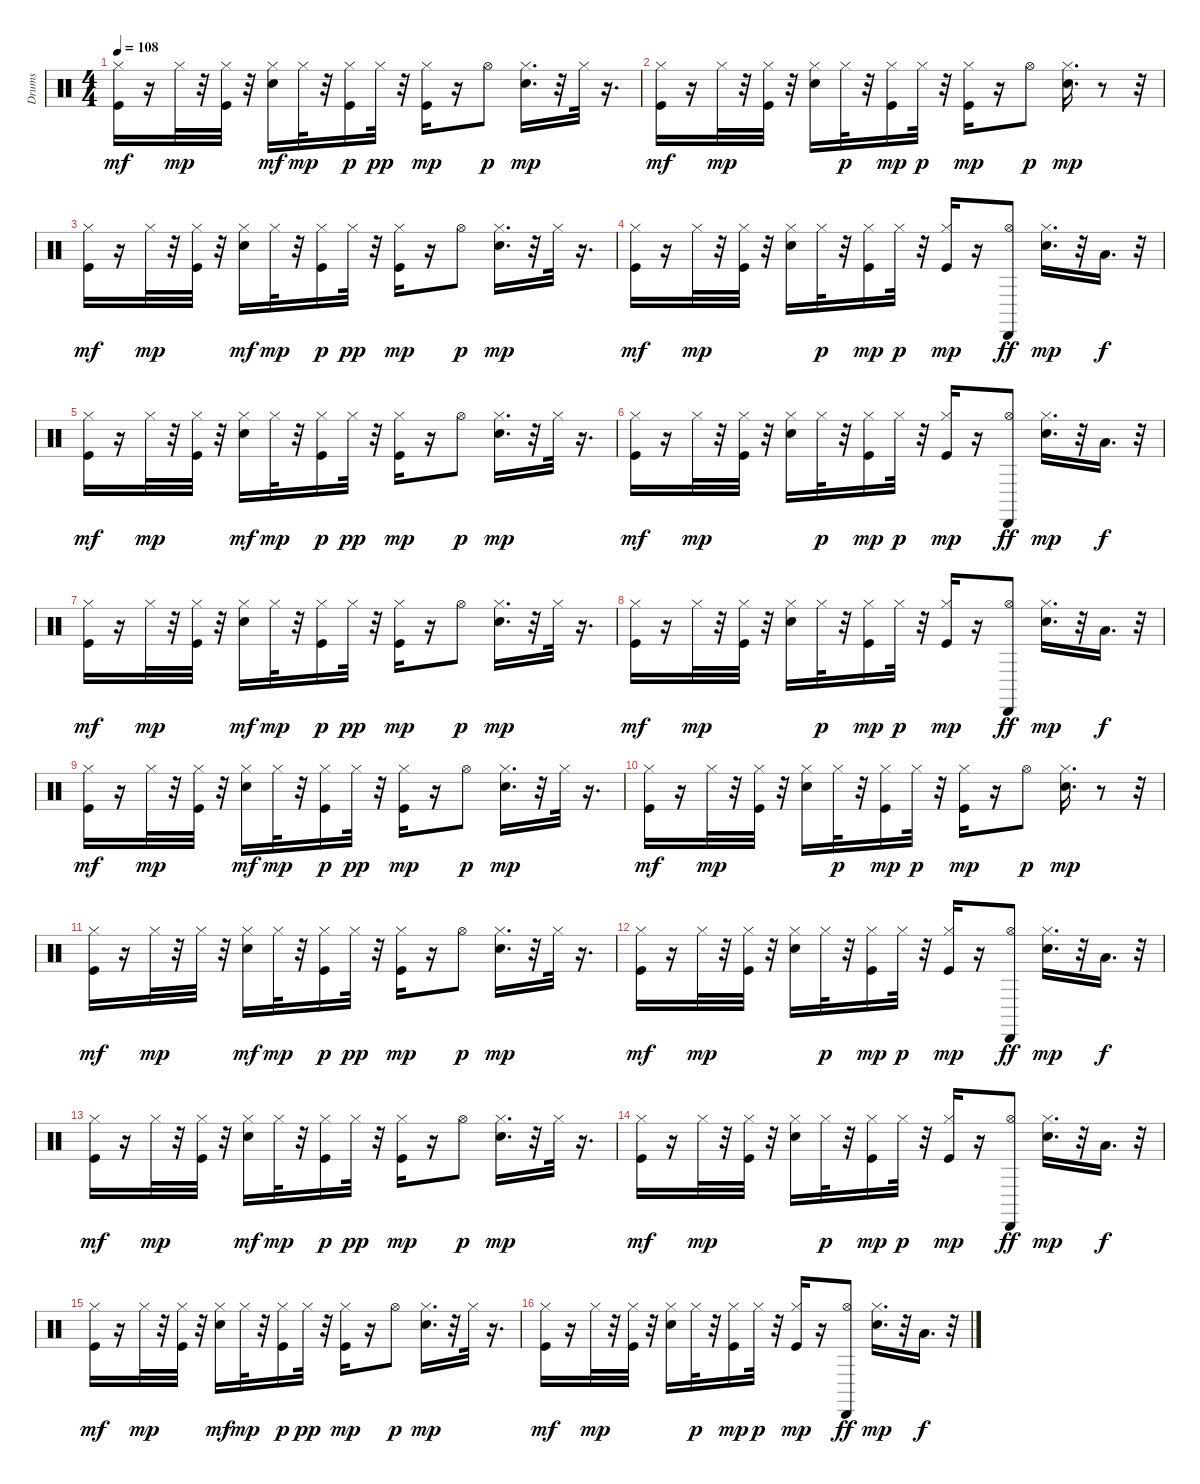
\track ("Drums" "Drums") {instrument percussion}
\staff {score}
\articulation defaults
\ts (4 4)
\tempo 108
\clef neutral
\ks c
("Hi-Hat (closed)" "Kick (hit)").16{dy mf} r.16 "Hi-Hat (closed)".32{dy mp} r.32 ("Hi-Hat (closed)" "Kick (hit)").32 r.32 ("Hi-Hat (closed)" "Snare (hit) 2").16{dy mf} "Hi-Hat (closed)".32{dy mp} r.32 ("Hi-Hat (closed)" "Kick (hit)").16{dy p} "Hi-Hat (closed)".32{dy pp} r.32 ("Hi-Hat (closed)" "Kick (hit)").16{dy mp} r.16 "Hi-Hat (open)".8{dy p} ("Hi-Hat (closed)" "Snare (hit) 2").16{d dy mp} r.32 "Hi-Hat (closed)".32 r.16{d} |
("Hi-Hat (closed)" "Kick (hit)").16{dy mf} r.16 "Hi-Hat (closed)".32{dy mp} r.32 ("Hi-Hat (closed)" "Kick (hit)").32 r.32 ("Hi-Hat (closed)" "Snare (hit) 2").16 "Hi-Hat (closed)".32{dy p} r.32 ("Hi-Hat (closed)" "Kick (hit)").16{dy mp} "Hi-Hat (closed)".32{dy p} r.32 ("Hi-Hat (closed)" "Kick (hit)").16{dy mp} r.16 "Hi-Hat (open)".8{dy p} ("Hi-Hat (closed)" "Snare (hit) 2").16{d dy mp} r.8 r.32 |
("Hi-Hat (closed)" "Kick (hit)").16{dy mf} r.16 "Hi-Hat (closed)".32{dy mp} r.32 ("Hi-Hat (closed)" "Kick (hit)").32 r.32 ("Hi-Hat (closed)" "Snare (hit) 2").16{dy mf} "Hi-Hat (closed)".32{dy mp} r.32 ("Hi-Hat (closed)" "Kick (hit)").16{dy p} "Hi-Hat (closed)".32{dy pp} r.32 ("Hi-Hat (closed)" "Kick (hit)").16{dy mp} r.16 "Hi-Hat (open)".8{dy p} ("Hi-Hat (closed)" "Snare (hit) 2").16{d dy mp} r.32 "Hi-Hat (closed)".32 r.16{d} |
("Hi-Hat (closed)" "Kick (hit)").16{dy mf} r.16 "Hi-Hat (closed)".32{dy mp} r.32 ("Hi-Hat (closed)" "Kick (hit)").32 r.32 ("Hi-Hat (closed)" "Snare (hit) 2").16 "Hi-Hat (closed)".32{dy p} r.32 ("Hi-Hat (closed)" "Kick (hit)").16{dy mp} "Hi-Hat (closed)".32{dy p} r.32 ("Hi-Hat (closed)" "Kick (hit)").16{dy mp} r.16 ("Hi-Hat (open)" "Cabasa (hit)").8{dy ff} ("Hi-Hat (closed)" "Snare (hit) 2").16{d dy mp} r.32 "Low Floor Tom (hit)".16{d dy f} r.32 |
("Hi-Hat (closed)" "Kick (hit)").16{dy mf} r.16 "Hi-Hat (closed)".32{dy mp} r.32 ("Hi-Hat (closed)" "Kick (hit)").32 r.32 ("Hi-Hat (closed)" "Snare (hit) 2").16{dy mf} "Hi-Hat (closed)".32{dy mp} r.32 ("Hi-Hat (closed)" "Kick (hit)").16{dy p} "Hi-Hat (closed)".32{dy pp} r.32 ("Hi-Hat (closed)" "Kick (hit)").16{dy mp} r.16 "Hi-Hat (open)".8{dy p} ("Hi-Hat (closed)" "Snare (hit) 2").16{d dy mp} r.32 "Hi-Hat (closed)".32 r.16{d} |
("Hi-Hat (closed)" "Kick (hit)").16{dy mf} r.16 "Hi-Hat (closed)".32{dy mp} r.32 ("Hi-Hat (closed)" "Kick (hit)").32 r.32 ("Hi-Hat (closed)" "Snare (hit) 2").16 "Hi-Hat (closed)".32{dy p} r.32 ("Hi-Hat (closed)" "Kick (hit)").16{dy mp} "Hi-Hat (closed)".32{dy p} r.32 ("Hi-Hat (closed)" "Kick (hit)").16{dy mp} r.16 ("Hi-Hat (open)" "Cabasa (hit)").8{dy ff} ("Hi-Hat (closed)" "Snare (hit) 2").16{d dy mp} r.32 "Low Floor Tom (hit)".16{d dy f} r.32 |
("Hi-Hat (closed)" "Kick (hit)").16{dy mf} r.16 "Hi-Hat (closed)".32{dy mp} r.32 ("Hi-Hat (closed)" "Kick (hit)").32 r.32 ("Hi-Hat (closed)" "Snare (hit) 2").16{dy mf} "Hi-Hat (closed)".32{dy mp} r.32 ("Hi-Hat (closed)" "Kick (hit)").16{dy p} "Hi-Hat (closed)".32{dy pp} r.32 ("Hi-Hat (closed)" "Kick (hit)").16{dy mp} r.16 "Hi-Hat (open)".8{dy p} ("Hi-Hat (closed)" "Snare (hit) 2").16{d dy mp} r.32 "Hi-Hat (closed)".32 r.16{d} |
("Hi-Hat (closed)" "Kick (hit)").16{dy mf} r.16 "Hi-Hat (closed)".32{dy mp} r.32 ("Hi-Hat (closed)" "Kick (hit)").32 r.32 ("Hi-Hat (closed)" "Snare (hit) 2").16 "Hi-Hat (closed)".32{dy p} r.32 ("Hi-Hat (closed)" "Kick (hit)").16{dy mp} "Hi-Hat (closed)".32{dy p} r.32 ("Hi-Hat (closed)" "Kick (hit)").16{dy mp} r.16 ("Hi-Hat (open)" "Cabasa (hit)").8{dy ff} ("Hi-Hat (closed)" "Snare (hit) 2").16{d dy mp} r.32 "Low Floor Tom (hit)".16{d dy f} r.32 |
("Hi-Hat (closed)" "Kick (hit)").16{dy mf} r.16 "Hi-Hat (closed)".32{dy mp} r.32 ("Hi-Hat (closed)" "Kick (hit)").32 r.32 ("Hi-Hat (closed)" "Snare (hit) 2").16{dy mf} "Hi-Hat (closed)".32{dy mp} r.32 ("Hi-Hat (closed)" "Kick (hit)").16{dy p} "Hi-Hat (closed)".32{dy pp} r.32 ("Hi-Hat (closed)" "Kick (hit)").16{dy mp} r.16 "Hi-Hat (open)".8{dy p} ("Hi-Hat (closed)" "Snare (hit) 2").16{d dy mp} r.32 "Hi-Hat (closed)".32 r.16{d} |
("Hi-Hat (closed)" "Kick (hit)").16{dy mf} r.16 "Hi-Hat (closed)".32{dy mp} r.32 ("Hi-Hat (closed)" "Kick (hit)").32 r.32 ("Hi-Hat (closed)" "Snare (hit) 2").16 "Hi-Hat (closed)".32{dy p} r.32 ("Hi-Hat (closed)" "Kick (hit)").16{dy mp} "Hi-Hat (closed)".32{dy p} r.32 ("Hi-Hat (closed)" "Kick (hit)").16{dy mp} r.16 "Hi-Hat (open)".8{dy p} ("Hi-Hat (closed)" "Snare (hit) 2").16{d dy mp} r.8 r.32 |
("Hi-Hat (closed)" "Kick (hit)").16{dy mf} r.16 "Hi-Hat (closed)".32{dy mp} r.32 "Hi-Hat (closed)".32 r.32 ("Hi-Hat (closed)" "Snare (hit) 2").16{dy mf} "Hi-Hat (closed)".32{dy mp} r.32 ("Hi-Hat (closed)" "Kick (hit)").16{dy p} "Hi-Hat (closed)".32{dy pp} r.32 ("Hi-Hat (closed)" "Kick (hit)").16{dy mp} r.16 "Hi-Hat (open)".8{dy p} ("Hi-Hat (closed)" "Snare (hit) 2").16{d dy mp} r.32 "Hi-Hat (closed)".32 r.16{d} |
("Hi-Hat (closed)" "Kick (hit)").16{dy mf} r.16 "Hi-Hat (closed)".32{dy mp} r.32 ("Hi-Hat (closed)" "Kick (hit)").32 r.32 ("Hi-Hat (closed)" "Snare (hit) 2").16 "Hi-Hat (closed)".32{dy p} r.32 ("Hi-Hat (closed)" "Kick (hit)").16{dy mp} "Hi-Hat (closed)".32{dy p} r.32 ("Hi-Hat (closed)" "Kick (hit)").16{dy mp} r.16 ("Hi-Hat (open)" "Cabasa (hit)").8{dy ff} ("Hi-Hat (closed)" "Snare (hit) 2").16{d dy mp} r.32 "Low Floor Tom (hit)".16{d dy f} r.32 |
("Hi-Hat (closed)" "Kick (hit)").16{dy mf} r.16 "Hi-Hat (closed)".32{dy mp} r.32 ("Hi-Hat (closed)" "Kick (hit)").32 r.32 ("Hi-Hat (closed)" "Snare (hit) 2").16{dy mf} "Hi-Hat (closed)".32{dy mp} r.32 ("Hi-Hat (closed)" "Kick (hit)").16{dy p} "Hi-Hat (closed)".32{dy pp} r.32 ("Hi-Hat (closed)" "Kick (hit)").16{dy mp} r.16 "Hi-Hat (open)".8{dy p} ("Hi-Hat (closed)" "Snare (hit) 2").16{d dy mp} r.32 "Hi-Hat (closed)".32 r.16{d} |
("Hi-Hat (closed)" "Kick (hit)").16{dy mf} r.16 "Hi-Hat (closed)".32{dy mp} r.32 ("Hi-Hat (closed)" "Kick (hit)").32 r.32 ("Hi-Hat (closed)" "Snare (hit) 2").16 "Hi-Hat (closed)".32{dy p} r.32 ("Hi-Hat (closed)" "Kick (hit)").16{dy mp} "Hi-Hat (closed)".32{dy p} r.32 ("Hi-Hat (closed)" "Kick (hit)").16{dy mp} r.16 ("Hi-Hat (open)" "Cabasa (hit)").8{dy ff} ("Hi-Hat (closed)" "Snare (hit) 2").16{d dy mp} r.32 "Low Floor Tom (hit)".16{d dy f} r.32 |
("Hi-Hat (closed)" "Kick (hit)").16{dy mf} r.16 "Hi-Hat (closed)".32{dy mp} r.32 ("Hi-Hat (closed)" "Kick (hit)").32 r.32 ("Hi-Hat (closed)" "Snare (hit) 2").16{dy mf} "Hi-Hat (closed)".32{dy mp} r.32 ("Hi-Hat (closed)" "Kick (hit)").16{dy p} "Hi-Hat (closed)".32{dy pp} r.32 ("Hi-Hat (closed)" "Kick (hit)").16{dy mp} r.16 "Hi-Hat (open)".8{dy p} ("Hi-Hat (closed)" "Snare (hit) 2").16{d dy mp} r.32 "Hi-Hat (closed)".32 r.16{d} |
("Hi-Hat (closed)" "Kick (hit)").16{dy mf} r.16 "Hi-Hat (closed)".32{dy mp} r.32 ("Hi-Hat (closed)" "Kick (hit)").32 r.32 ("Hi-Hat (closed)" "Snare (hit) 2").16 "Hi-Hat (closed)".32{dy p} r.32 ("Hi-Hat (closed)" "Kick (hit)").16{dy mp} "Hi-Hat (closed)".32{dy p} r.32 ("Hi-Hat (closed)" "Kick (hit)").16{dy mp} r.16 ("Hi-Hat (open)" "Cabasa (hit)").8{dy ff} ("Hi-Hat (closed)" "Snare (hit) 2").16{d dy mp} r.32 "Low Floor Tom (hit)".16{d dy f} r.32
